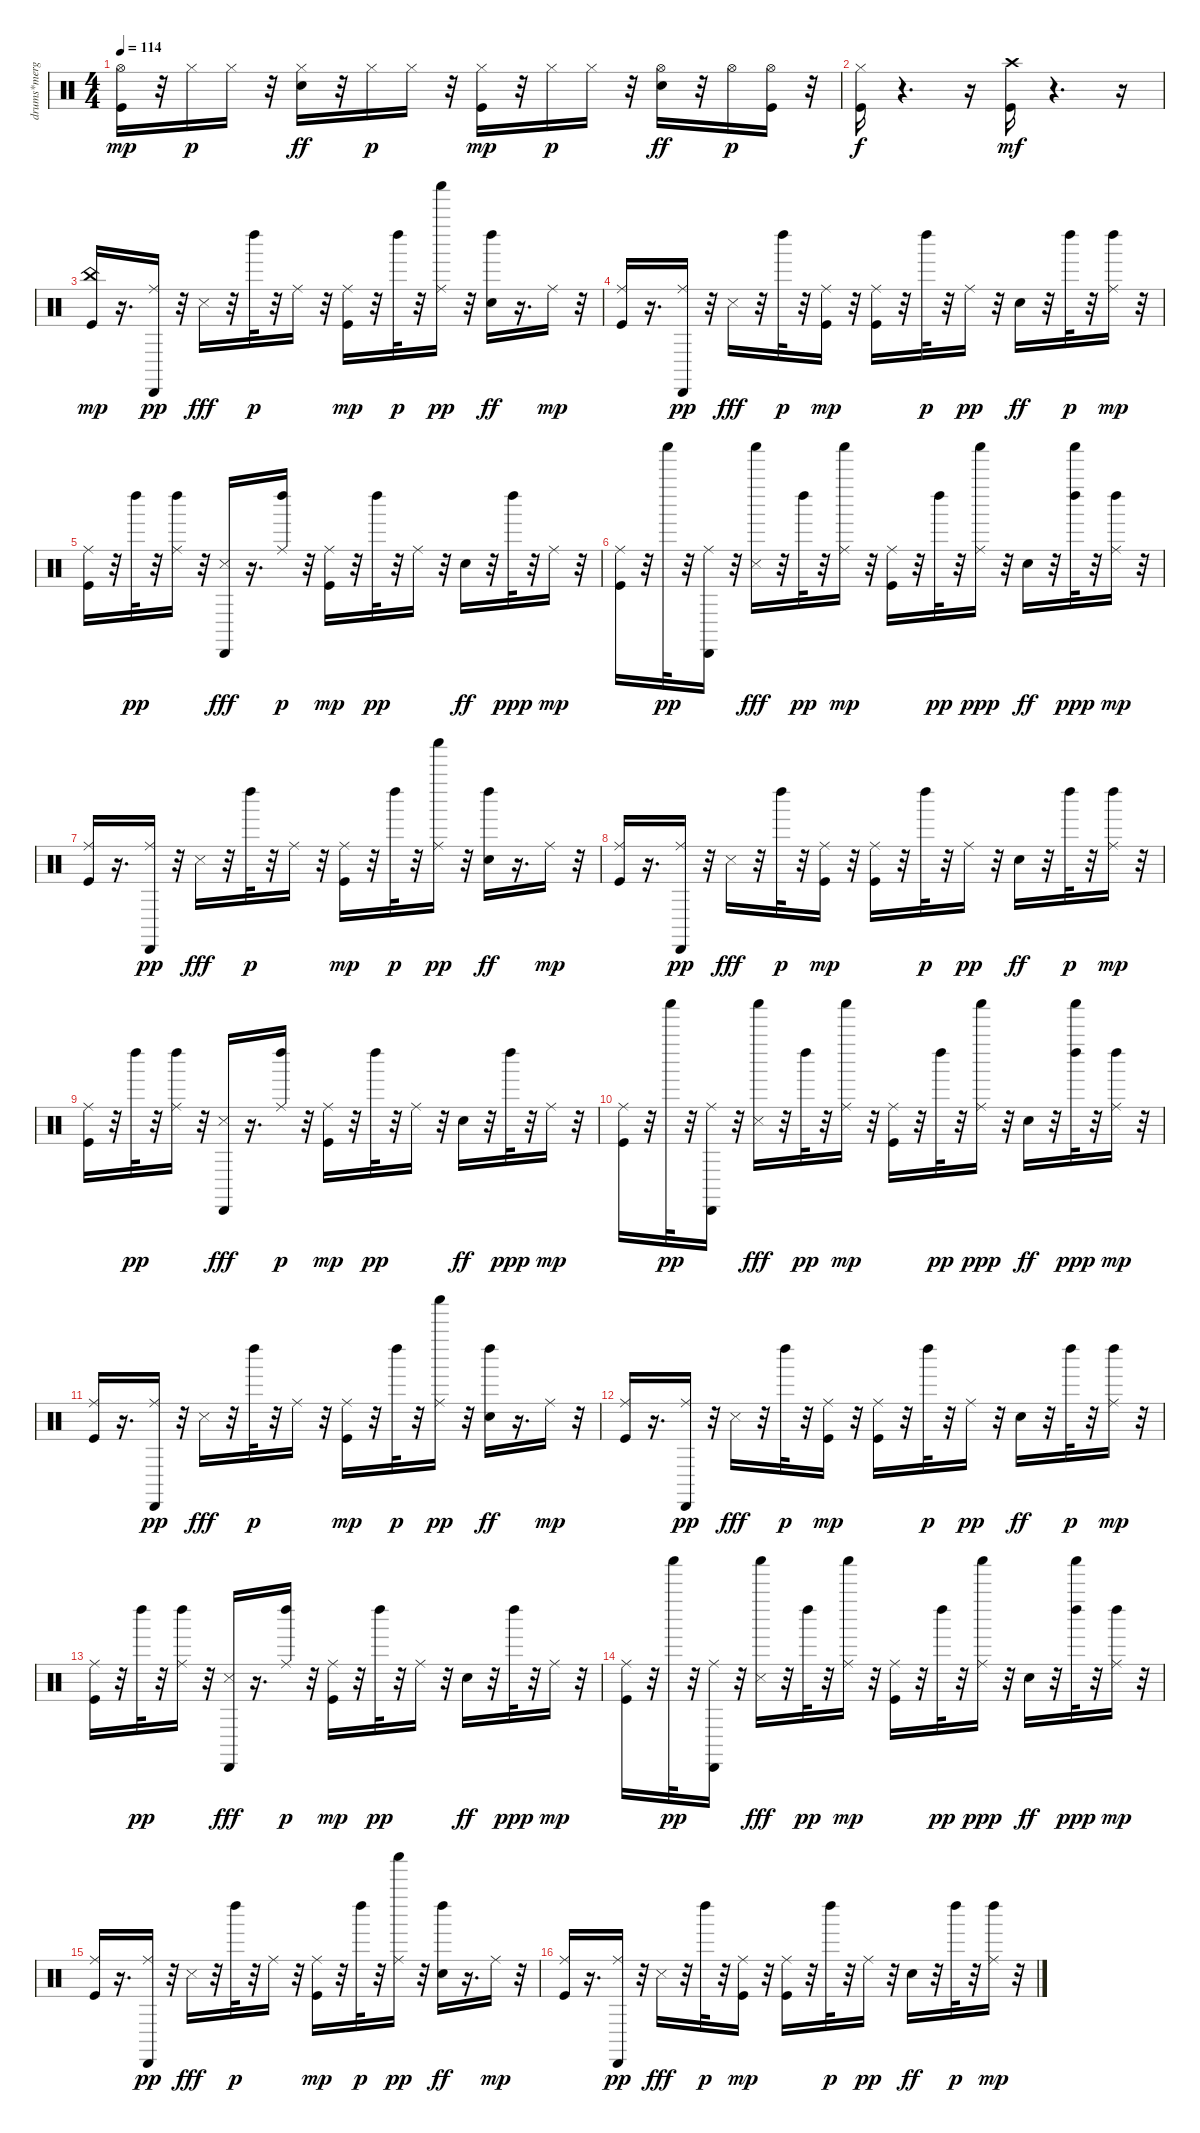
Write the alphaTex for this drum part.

\track ("drums*merged" "drums*merg") {instrument percussion}
\staff {score}
\articulation defaults
\ts (4 4)
\tempo 114
\clef neutral
\ks c
("Kick (hit)" "Hi-Hat (open)").16{dy mp} r.32 "Hi-Hat (closed)".16{dy p} "Hi-Hat (closed)".16 r.32 ("Hi-Hat (closed)" "Snare (hit) 2").16{dy ff} r.32 "Hi-Hat (closed)".16{dy p} "Hi-Hat (closed)".16 r.32 ("Kick (hit)" "Hi-Hat (closed)").16{dy mp} r.32 "Hi-Hat (closed)".16{dy p} "Hi-Hat (closed)".16 r.32 ("Hi-Hat (open)" "Snare (hit) 2").16{dy ff} r.32 "Hi-Hat (open)".16{dy p} ("Kick (hit)" "Hi-Hat (open)").16 r.32 |
("Hi-Hat (closed)" "Kick (hit)").16{dy f} r.4{d} r.16 ("Kick (hit)" "Crash high (hit)").16{dy mf} r.4{d} r.16 |
("China (hit)" "Kick (hit)").16{dy mp} r.16{d} ("Ride (middle)" "Cabasa (hit)").16{dy pp} r.32 "Snare (side stick) 3".16{dy fff} r.32 "Left Maraca (hit)".32{dy p} r.32 "Ride (middle)".16 r.32 ("Ride (middle)" "Kick (hit)").16{dy mp} r.32 "Left Maraca (hit)".32{dy p} r.32 ("Ride (middle)" "Shaker (hit)").16{dy pp} r.32 ("Left Maraca (hit)" "Snare (hit) 2").16{dy ff} r.16{d} "Ride (middle)".16{dy mp} r.32 |
("Kick (hit)" "Ride (middle)").16 r.16{d} ("Ride (middle)" "Cabasa (hit)").16{dy pp} r.32 "Snare (side stick) 3".16{dy fff} r.32 "Left Maraca (hit)".32{dy p} r.32 ("Ride (middle)" "Kick (hit)").16{dy mp} r.32 ("Ride (middle)" "Kick (hit)").16 r.32 "Left Maraca (hit)".32{dy p} r.32 "Ride (middle)".16{dy pp} r.32 "Snare (hit) 2".16{dy ff} r.32 "Left Maraca (hit)".32{dy p} r.32 ("Left Maraca (hit)" "Ride (middle)").16{dy mp} r.32 |
("Kick (hit)" "Ride (middle)").16 r.32 "Left Maraca (hit)".32{dy pp} r.32 ("Ride (middle)" "Left Maraca (hit)").16 r.32 ("Cabasa (hit)" "Snare (side stick) 3").16{dy fff} r.16{d} ("Left Maraca (hit)" "Ride (middle)").16{dy p} r.32 ("Ride (middle)" "Kick (hit)").16{dy mp} r.32 "Left Maraca (hit)".32{dy pp} r.32 "Ride (middle)".16 r.32 "Snare (hit) 2".16{dy ff} r.32 "Left Maraca (hit)".32{dy ppp} r.32 "Ride (middle)".16{dy mp} r.32 |
("Ride (middle)" "Kick (hit)").16 r.32 "Shaker (hit)".32{dy pp} r.32 ("Ride (middle)" "Cabasa (hit)").16 r.32 ("Shaker (hit)" "Snare (side stick) 3").16{dy fff} r.32 "Left Maraca (hit)".32{dy pp} r.32 ("Shaker (hit)" "Ride (middle)").16{dy mp} r.32 ("Ride (middle)" "Kick (hit)").16 r.32 "Left Maraca (hit)".32{dy pp} r.32 ("Ride (middle)" "Shaker (hit)").16{dy ppp} r.32 "Snare (hit) 2".16{dy ff} r.32 ("Left Maraca (hit)" "Shaker (hit)").32{dy ppp} r.32 ("Left Maraca (hit)" "Ride (middle)").16{dy mp} r.32 |
("Ride (middle)" "Kick (hit)").16 r.16{d} ("Ride (middle)" "Cabasa (hit)").16{dy pp} r.32 "Snare (side stick) 3".16{dy fff} r.32 "Left Maraca (hit)".32{dy p} r.32 "Ride (middle)".16 r.32 ("Ride (middle)" "Kick (hit)").16{dy mp} r.32 "Left Maraca (hit)".32{dy p} r.32 ("Ride (middle)" "Shaker (hit)").16{dy pp} r.32 ("Left Maraca (hit)" "Snare (hit) 2").16{dy ff} r.16{d} "Ride (middle)".16{dy mp} r.32 |
("Kick (hit)" "Ride (middle)").16 r.16{d} ("Ride (middle)" "Cabasa (hit)").16{dy pp} r.32 "Snare (side stick) 3".16{dy fff} r.32 "Left Maraca (hit)".32{dy p} r.32 ("Ride (middle)" "Kick (hit)").16{dy mp} r.32 ("Ride (middle)" "Kick (hit)").16 r.32 "Left Maraca (hit)".32{dy p} r.32 "Ride (middle)".16{dy pp} r.32 "Snare (hit) 2".16{dy ff} r.32 "Left Maraca (hit)".32{dy p} r.32 ("Left Maraca (hit)" "Ride (middle)").16{dy mp} r.32 |
("Kick (hit)" "Ride (middle)").16 r.32 "Left Maraca (hit)".32{dy pp} r.32 ("Ride (middle)" "Left Maraca (hit)").16 r.32 ("Cabasa (hit)" "Snare (side stick) 3").16{dy fff} r.16{d} ("Left Maraca (hit)" "Ride (middle)").16{dy p} r.32 ("Ride (middle)" "Kick (hit)").16{dy mp} r.32 "Left Maraca (hit)".32{dy pp} r.32 "Ride (middle)".16 r.32 "Snare (hit) 2".16{dy ff} r.32 "Left Maraca (hit)".32{dy ppp} r.32 "Ride (middle)".16{dy mp} r.32 |
("Ride (middle)" "Kick (hit)").16 r.32 "Shaker (hit)".32{dy pp} r.32 ("Ride (middle)" "Cabasa (hit)").16 r.32 ("Shaker (hit)" "Snare (side stick) 3").16{dy fff} r.32 "Left Maraca (hit)".32{dy pp} r.32 ("Shaker (hit)" "Ride (middle)").16{dy mp} r.32 ("Ride (middle)" "Kick (hit)").16 r.32 "Left Maraca (hit)".32{dy pp} r.32 ("Ride (middle)" "Shaker (hit)").16{dy ppp} r.32 "Snare (hit) 2".16{dy ff} r.32 ("Left Maraca (hit)" "Shaker (hit)").32{dy ppp} r.32 ("Left Maraca (hit)" "Ride (middle)").16{dy mp} r.32 |
("Ride (middle)" "Kick (hit)").16 r.16{d} ("Ride (middle)" "Cabasa (hit)").16{dy pp} r.32 "Snare (side stick) 3".16{dy fff} r.32 "Left Maraca (hit)".32{dy p} r.32 "Ride (middle)".16 r.32 ("Ride (middle)" "Kick (hit)").16{dy mp} r.32 "Left Maraca (hit)".32{dy p} r.32 ("Ride (middle)" "Shaker (hit)").16{dy pp} r.32 ("Left Maraca (hit)" "Snare (hit) 2").16{dy ff} r.16{d} "Ride (middle)".16{dy mp} r.32 |
("Kick (hit)" "Ride (middle)").16 r.16{d} ("Ride (middle)" "Cabasa (hit)").16{dy pp} r.32 "Snare (side stick) 3".16{dy fff} r.32 "Left Maraca (hit)".32{dy p} r.32 ("Ride (middle)" "Kick (hit)").16{dy mp} r.32 ("Ride (middle)" "Kick (hit)").16 r.32 "Left Maraca (hit)".32{dy p} r.32 "Ride (middle)".16{dy pp} r.32 "Snare (hit) 2".16{dy ff} r.32 "Left Maraca (hit)".32{dy p} r.32 ("Left Maraca (hit)" "Ride (middle)").16{dy mp} r.32 |
("Kick (hit)" "Ride (middle)").16 r.32 "Left Maraca (hit)".32{dy pp} r.32 ("Ride (middle)" "Left Maraca (hit)").16 r.32 ("Cabasa (hit)" "Snare (side stick) 3").16{dy fff} r.16{d} ("Left Maraca (hit)" "Ride (middle)").16{dy p} r.32 ("Ride (middle)" "Kick (hit)").16{dy mp} r.32 "Left Maraca (hit)".32{dy pp} r.32 "Ride (middle)".16 r.32 "Snare (hit) 2".16{dy ff} r.32 "Left Maraca (hit)".32{dy ppp} r.32 "Ride (middle)".16{dy mp} r.32 |
("Ride (middle)" "Kick (hit)").16 r.32 "Shaker (hit)".32{dy pp} r.32 ("Ride (middle)" "Cabasa (hit)").16 r.32 ("Shaker (hit)" "Snare (side stick) 3").16{dy fff} r.32 "Left Maraca (hit)".32{dy pp} r.32 ("Shaker (hit)" "Ride (middle)").16{dy mp} r.32 ("Ride (middle)" "Kick (hit)").16 r.32 "Left Maraca (hit)".32{dy pp} r.32 ("Ride (middle)" "Shaker (hit)").16{dy ppp} r.32 "Snare (hit) 2".16{dy ff} r.32 ("Left Maraca (hit)" "Shaker (hit)").32{dy ppp} r.32 ("Left Maraca (hit)" "Ride (middle)").16{dy mp} r.32 |
("Ride (middle)" "Kick (hit)").16 r.16{d} ("Ride (middle)" "Cabasa (hit)").16{dy pp} r.32 "Snare (side stick) 3".16{dy fff} r.32 "Left Maraca (hit)".32{dy p} r.32 "Ride (middle)".16 r.32 ("Ride (middle)" "Kick (hit)").16{dy mp} r.32 "Left Maraca (hit)".32{dy p} r.32 ("Ride (middle)" "Shaker (hit)").16{dy pp} r.32 ("Left Maraca (hit)" "Snare (hit) 2").16{dy ff} r.16{d} "Ride (middle)".16{dy mp} r.32 |
("Kick (hit)" "Ride (middle)").16 r.16{d} ("Ride (middle)" "Cabasa (hit)").16{dy pp} r.32 "Snare (side stick) 3".16{dy fff} r.32 "Left Maraca (hit)".32{dy p} r.32 ("Ride (middle)" "Kick (hit)").16{dy mp} r.32 ("Ride (middle)" "Kick (hit)").16 r.32 "Left Maraca (hit)".32{dy p} r.32 "Ride (middle)".16{dy pp} r.32 "Snare (hit) 2".16{dy ff} r.32 "Left Maraca (hit)".32{dy p} r.32 ("Left Maraca (hit)" "Ride (middle)").16{dy mp} r.32
